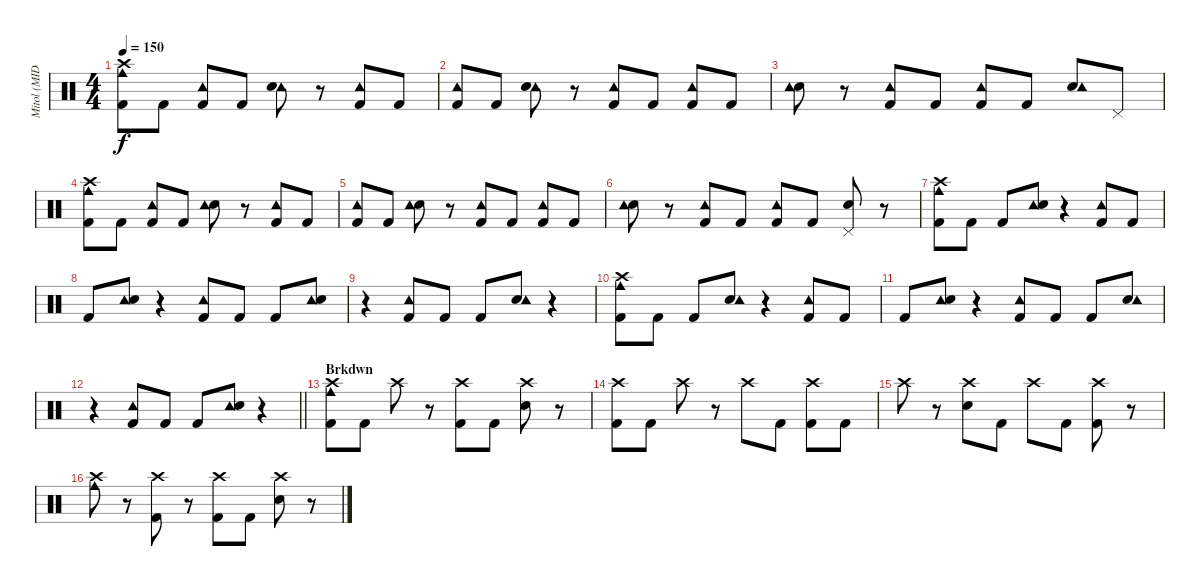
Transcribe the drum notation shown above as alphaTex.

\track ("Mitol (MIDI)" "Mitol (MID") {instrument percussion}
\staff {score}
\articulation defaults
\ts (4 4)
\tempo 150
\clef neutral
\ks c
("Cowbell medium (hit)" "Kick (hit) 2" "Crash high (hit)").8{dy f} "Kick (hit) 2".8 ("Tambourine (hit)" "Kick (hit) 2").8 "Kick (hit) 2".8 ("Tambourine (hit)" "Electric Snare (hit)").8 r.8 ("Kick (hit) 2" "Tambourine (hit)").8 "Kick (hit) 2".8 |
("Kick (hit) 2" "Tambourine (hit)").8 "Kick (hit) 2".8 ("Tambourine (hit)" "Electric Snare (hit)").8 r.8 ("Kick (hit) 2" "Tambourine (hit)").8 "Kick (hit) 2".8 ("Kick (hit) 2" "Tambourine (hit)").8 "Kick (hit) 2".8 |
("Electric Snare (hit)" "Tambourine (hit)").8 r.8 ("Kick (hit) 2" "Tambourine (hit)").8 "Kick (hit) 2".8 ("Tambourine (hit)" "Kick (hit) 2").8 "Kick (hit) 2".8 ("Electric Snare (hit)" "Tambourine (hit)").8 "Pedal Hi-Hat (hit)".8 |
("Crash high (hit)" "Kick (hit) 2" "Cowbell medium (hit)").8 "Kick (hit) 2".8 ("Tambourine (hit)" "Kick (hit) 2").8 "Kick (hit) 2".8 ("Electric Snare (hit)" "Tambourine (hit)").8 r.8 ("Tambourine (hit)" "Kick (hit) 2").8 "Kick (hit) 2".8 |
("Tambourine (hit)" "Kick (hit) 2").8 "Kick (hit) 2".8 ("Electric Snare (hit)" "Tambourine (hit)").8 r.8 ("Kick (hit) 2" "Tambourine (hit)").8 "Kick (hit) 2".8 ("Kick (hit) 2" "Tambourine (hit)").8 "Kick (hit) 2".8 |
("Electric Snare (hit)" "Tambourine (hit)").8 r.8 ("Tambourine (hit)" "Kick (hit) 2").8 "Kick (hit) 2".8 ("Tambourine (hit)" "Kick (hit) 2").8 "Kick (hit) 2".8 ("Pedal Hi-Hat (hit)" "Electric Snare (hit)").8 r.8 |
("Crash high (hit)" "Cowbell medium (hit)" "Kick (hit) 2").8 "Kick (hit) 2".8 "Kick (hit) 2".8 ("Tambourine (hit)" "Electric Snare (hit)").8 r.4 ("Kick (hit) 2" "Tambourine (hit)").8 "Kick (hit) 2".8 |
"Kick (hit) 2".8 ("Tambourine (hit)" "Electric Snare (hit)").8 r.4 ("Tambourine (hit)" "Kick (hit) 2").8 "Kick (hit) 2".8 "Kick (hit) 2".8 ("Tambourine (hit)" "Electric Snare (hit)").8 |
r.4 ("Tambourine (hit)" "Kick (hit) 2").8 "Kick (hit) 2".8 "Kick (hit) 2".8 ("Electric Snare (hit)" "Tambourine (hit)").8 r.4 |
("Kick (hit) 2" "Cowbell medium (hit)" "Crash high (hit)").8 "Kick (hit) 2".8 "Kick (hit) 2".8 ("Electric Snare (hit)" "Tambourine (hit)").8 r.4 ("Kick (hit) 2" "Tambourine (hit)").8 "Kick (hit) 2".8 |
"Kick (hit) 2".8 ("Tambourine (hit)" "Electric Snare (hit)").8 r.4 ("Kick (hit) 2" "Tambourine (hit)").8 "Kick (hit) 2".8 "Kick (hit) 2".8 ("Electric Snare (hit)" "Tambourine (hit)").8 |
\barLineRight lightlight
r.4 ("Kick (hit) 2" "Tambourine (hit)").8 "Kick (hit) 2".8 "Kick (hit) 2".8 ("Tambourine (hit)" "Electric Snare (hit)").8 r.4 |
\section ("" "Brkdwn")
("Kick (hit) 2" "Crash high (hit)" "Cowbell medium (hit)").8 "Kick (hit) 2".8 "Crash high (hit)".8 r.8 ("Crash high (hit)" "Kick (hit) 2").8 "Kick (hit) 2".8 ("Electric Snare (hit)" "Crash high (hit)").8 r.8 |
("Crash high (hit)" "Kick (hit) 2").8 "Kick (hit) 2".8 "Crash high (hit)".8 r.8 "Crash high (hit)".8 "Kick (hit) 2".8 ("Kick (hit) 2" "Crash high (hit)").8 "Kick (hit) 2".8 |
"Crash high (hit)".8 r.8 ("Electric Snare (hit)" "Crash high (hit)").8 "Kick (hit) 2".8 "Crash high (hit)".8 "Kick (hit) 2".8 ("Crash high (hit)" "Kick (hit) 2").8 r.8 |
("Cowbell medium (hit)" "Crash high (hit)").8 r.8 ("Kick (hit) 2" "Crash high (hit)").8 r.8 ("Crash high (hit)" "Kick (hit) 2").8 "Kick (hit) 2".8 ("Crash high (hit)" "Electric Snare (hit)").8 r.8
